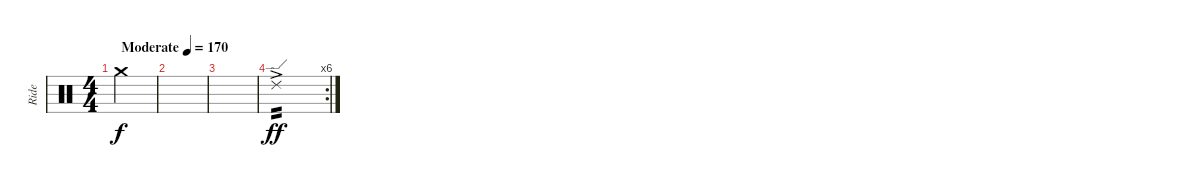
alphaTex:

\track ("Ride" "Ride") {instrument percussion}
\staff {score}
\articulation defaults
\ts (4 4)
\tempo (170 "Moderate")
\clef neutral
\ks c "Crash medium (hit)".4{dy f}
|
|
|
\rc 6 "Ride (edge) 2"{ac}.1{tp 2 dy ff}
